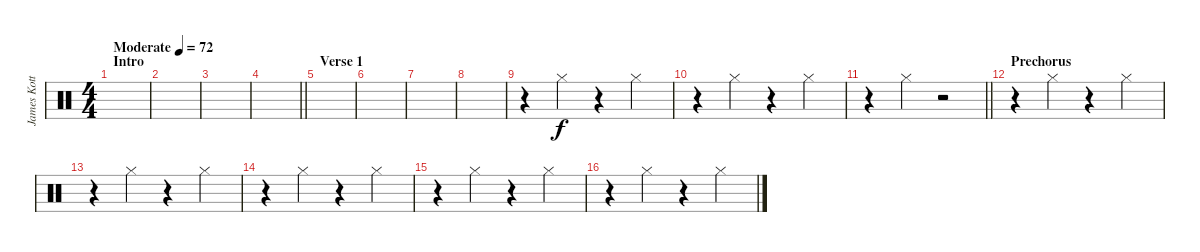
\track ("James Kottak" "James Kott") {instrument percussion}
\staff {score}
\articulation defaults
\ts (4 4)
\section ("" "Intro")
\tempo (72 "Moderate")
\clef neutral
\ks c
|
|
|
\barLineRight lightlight
|
\section ("" "Verse 1")
|
|
|
|
r.4 "Hi-Hat (closed)".4 r.4 "Hi-Hat (closed)".4 |
r.4 "Hi-Hat (closed)".4 r.4 "Hi-Hat (closed)".4 |
\barLineRight lightlight
r.4 "Hi-Hat (closed)".4 r.2 |
\section ("" "Prechorus")
r.4 "Hi-Hat (closed)".4 r.4 "Hi-Hat (closed)".4 |
r.4 "Hi-Hat (closed)".4 r.4 "Hi-Hat (closed)".4 |
r.4 "Hi-Hat (closed)".4 r.4 "Hi-Hat (closed)".4 |
r.4 "Hi-Hat (closed)".4 r.4 "Hi-Hat (closed)".4 |
r.4 "Hi-Hat (closed)".4 r.4 "Hi-Hat (closed)".4
